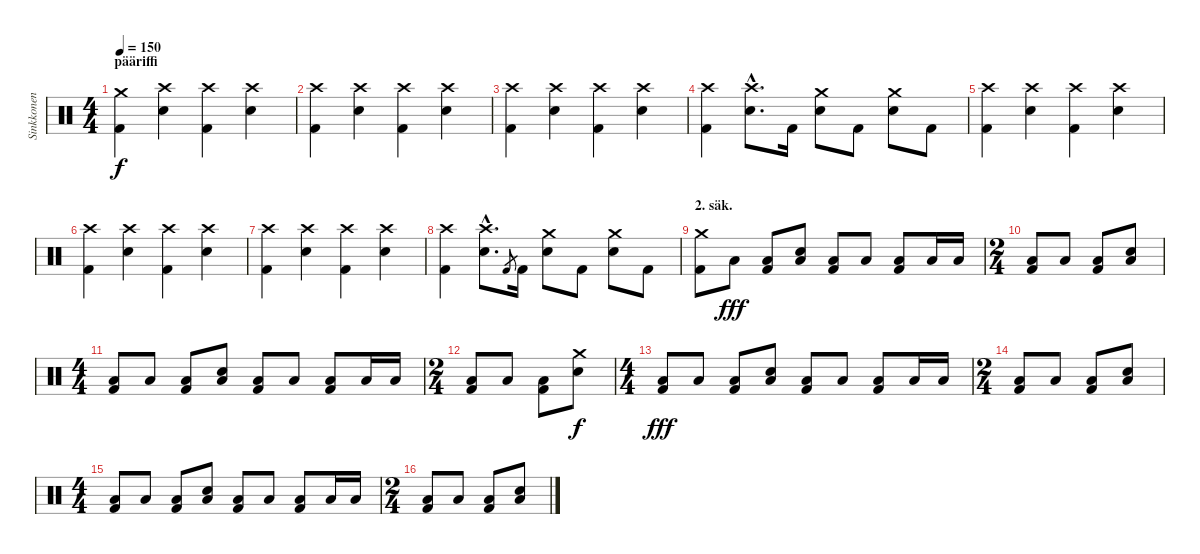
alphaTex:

\track ("Sinkkonen" "Sinkkonen") {instrument percussion}
\staff {score}
\articulation defaults
\ts (4 4)
\section ("" "pääriffi")
\tempo 150
\clef neutral
\ks c
("Kick (hit) 2" "Crash medium (hit)").4{dy f} ("Crash high (hit)" "Snare (hit) 2").4 ("Kick (hit) 2" "Crash high (hit)").4 ("Crash high (hit)" "Snare (hit) 2").4 |
("Kick (hit) 2" "Crash high (hit)").4 ("Crash high (hit)" "Snare (hit) 2").4 ("Kick (hit) 2" "Crash high (hit)").4 ("Crash high (hit)" "Snare (hit) 2").4 |
("Kick (hit) 2" "Crash high (hit)").4 ("Crash high (hit)" "Snare (hit) 2").4 ("Kick (hit) 2" "Crash high (hit)").4 ("Crash high (hit)" "Snare (hit) 2").4 |
("Kick (hit) 2" "Crash high (hit)").4 ("Crash high (hit)"{hac} "Snare (hit) 2"{hac}).8{d} "Kick (hit) 2".16 ("Crash medium (hit)" "Snare (hit) 2").8 "Kick (hit) 2".8 ("Crash medium (hit)" "Snare (hit) 2").8 "Kick (hit) 2".8 |
("Kick (hit) 2" "Crash high (hit)").4 ("Crash high (hit)" "Snare (hit) 2").4 ("Kick (hit) 2" "Crash high (hit)").4 ("Crash high (hit)" "Snare (hit) 2").4 |
("Kick (hit) 2" "Crash high (hit)").4 ("Crash high (hit)" "Snare (hit) 2").4 ("Kick (hit) 2" "Crash high (hit)").4 ("Crash high (hit)" "Snare (hit) 2").4 |
("Kick (hit) 2" "Crash high (hit)").4 ("Crash high (hit)" "Snare (hit) 2").4 ("Kick (hit) 2" "Crash high (hit)").4 ("Crash high (hit)" "Snare (hit) 2").4 |
("Kick (hit) 2" "Crash high (hit)").4 ("Crash high (hit)"{hac} "Snare (hit) 2"{hac}).8{d} "Kick (hit) 2".8{gr} "Kick (hit) 2".16 ("Crash medium (hit)" "Snare (hit) 2").8 "Kick (hit) 2".8 ("Crash medium (hit)" "Snare (hit) 2").8 "Kick (hit) 2".8 |
\section ("" "2. säk.")
("Kick (hit) 2" "Crash medium (hit)").8 "Low Floor Tom (hit)".8{dy fff} ("Kick (hit) 2" "Low Floor Tom (hit)").8 ("Low Floor Tom (hit)" "Snare (hit) 2").8 ("Kick (hit) 2" "Low Floor Tom (hit)").8 "Low Floor Tom (hit)".8 ("Kick (hit) 2" "Low Floor Tom (hit)").8 "Low Floor Tom (hit)".16 "Low Floor Tom (hit)".16 |
\ts (2 4)
("Kick (hit) 2" "Low Floor Tom (hit)").8 "Low Floor Tom (hit)".8 ("Kick (hit) 2" "Low Floor Tom (hit)").8 ("Low Floor Tom (hit)" "Snare (hit) 2").8 |
\ts (4 4)
("Kick (hit) 2" "Low Floor Tom (hit)").8 "Low Floor Tom (hit)".8 ("Kick (hit) 2" "Low Floor Tom (hit)").8 ("Low Floor Tom (hit)" "Snare (hit) 2").8 ("Kick (hit) 2" "Low Floor Tom (hit)").8 "Low Floor Tom (hit)".8 ("Kick (hit) 2" "Low Floor Tom (hit)").8 "Low Floor Tom (hit)".16 "Low Floor Tom (hit)".16 |
\ts (2 4)
("Kick (hit) 2" "Low Floor Tom (hit)").8 "Low Floor Tom (hit)".8 ("Kick (hit) 2" "Low Floor Tom (hit)").8 ("Crash medium (hit)" "Snare (hit) 2").8{dy f} |
\ts (4 4)
("Kick (hit) 2" "Low Floor Tom (hit)").8{dy fff} "Low Floor Tom (hit)".8 ("Kick (hit) 2" "Low Floor Tom (hit)").8 ("Low Floor Tom (hit)" "Snare (hit) 2").8 ("Kick (hit) 2" "Low Floor Tom (hit)").8 "Low Floor Tom (hit)".8 ("Kick (hit) 2" "Low Floor Tom (hit)").8 "Low Floor Tom (hit)".16 "Low Floor Tom (hit)".16 |
\ts (2 4)
("Kick (hit) 2" "Low Floor Tom (hit)").8 "Low Floor Tom (hit)".8 ("Kick (hit) 2" "Low Floor Tom (hit)").8 ("Low Floor Tom (hit)" "Snare (hit) 2").8 |
\ts (4 4)
("Kick (hit) 2" "Low Floor Tom (hit)").8 "Low Floor Tom (hit)".8 ("Kick (hit) 2" "Low Floor Tom (hit)").8 ("Low Floor Tom (hit)" "Snare (hit) 2").8 ("Kick (hit) 2" "Low Floor Tom (hit)").8 "Low Floor Tom (hit)".8 ("Kick (hit) 2" "Low Floor Tom (hit)").8 "Low Floor Tom (hit)".16 "Low Floor Tom (hit)".16 |
\ts (2 4)
("Kick (hit) 2" "Low Floor Tom (hit)").8 "Low Floor Tom (hit)".8 ("Kick (hit) 2" "Low Floor Tom (hit)").8 ("Low Floor Tom (hit)" "Snare (hit) 2").8
